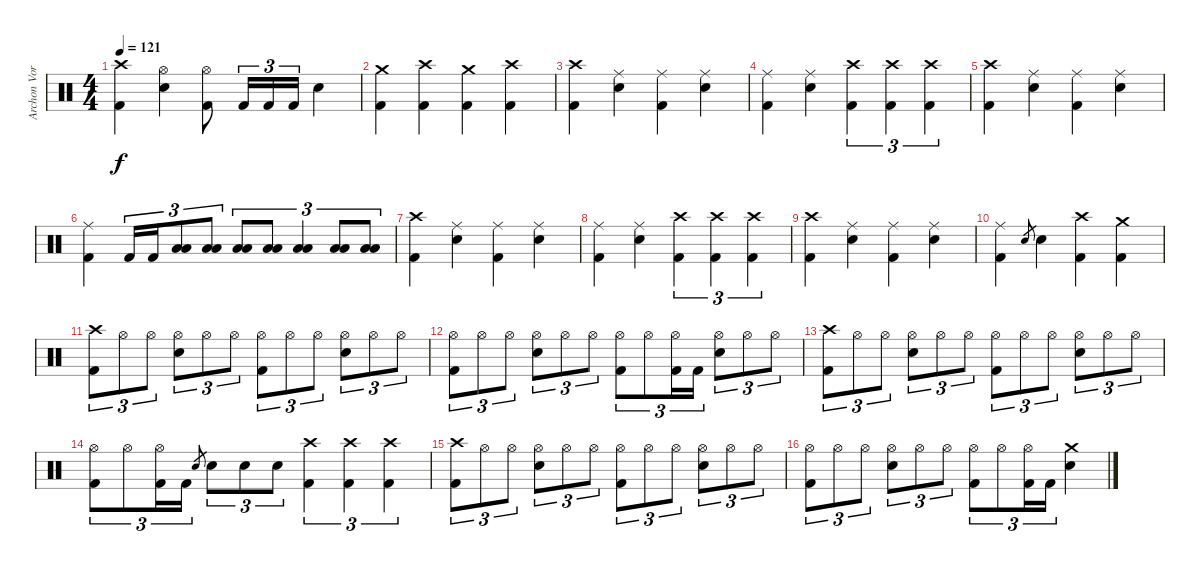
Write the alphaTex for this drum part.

\track ("Archon Vorskaath" "Archon Vor") {instrument percussion}
\staff {score}
\articulation defaults
\ts (4 4)
\tempo 121
\clef neutral
\ks c
("Crash high (hit)" "Kick (hit) 2").4{dy f} ("Hi-Hat (open)" "Electric Snare (hit)").4 ("Hi-Hat (open)" "Kick (hit) 2").8 "Kick (hit) 2".16{tu (3 2)} "Kick (hit) 2".16{tu (3 2)} "Kick (hit) 2".16{tu (3 2)} "Electric Snare (hit)".4 |
("Crash medium (hit)" "Kick (hit) 2").4 ("Crash high (hit)" "Kick (hit) 2").4 ("Crash medium (hit)" "Kick (hit) 2").4 ("Crash high (hit)" "Kick (hit) 2").4 |
("Crash high (hit)" "Kick (hit) 2").4 ("Ride (middle)" "Electric Snare (hit)").4 ("Ride (middle)" "Kick (hit) 2").4 ("Ride (middle)" "Electric Snare (hit)").4 |
("Ride (middle)" "Kick (hit) 2").4 ("Ride (middle)" "Electric Snare (hit)").4 ("Crash high (hit)" "Kick (hit) 2").4{tu (3 2)} ("Crash high (hit)" "Kick (hit) 2").4{tu (3 2)} ("Crash high (hit)" "Kick (hit) 2").4{tu (3 2)} |
("Crash high (hit)" "Kick (hit) 2").4 ("Ride (middle)" "Electric Snare (hit)").4 ("Ride (middle)" "Kick (hit) 2").4 ("Ride (middle)" "Electric Snare (hit)").4 |
("Ride (middle)" "Kick (hit) 2").4 "Kick (hit) 2".16{tu (3 2)} "Kick (hit) 2".16{tu (3 2)} ("Low Tom (hit)" "Low Floor Tom (hit)").8{tu (3 2)} ("Low Tom (hit)" "Low Floor Tom (hit)").8{tu (3 2)} ("Low Tom (hit)" "Low Floor Tom (hit)").8{tu (3 2)} ("Low Tom (hit)" "Low Floor Tom (hit)").8{tu (3 2)} ("Low Tom (hit)" "Low Floor Tom (hit)").4{tu (3 2)} ("Low Tom (hit)" "Low Floor Tom (hit)").8{tu (3 2)} ("Low Tom (hit)" "Low Floor Tom (hit)").8{tu (3 2)} |
("Crash high (hit)" "Kick (hit) 2").4 ("Ride (middle)" "Electric Snare (hit)").4 ("Ride (middle)" "Kick (hit) 2").4 ("Ride (middle)" "Electric Snare (hit)").4 |
("Ride (middle)" "Kick (hit) 2").4 ("Ride (middle)" "Electric Snare (hit)").4 ("Crash high (hit)" "Kick (hit) 2").4{tu (3 2)} ("Crash high (hit)" "Kick (hit) 2").4{tu (3 2)} ("Crash high (hit)" "Kick (hit) 2").4{tu (3 2)} |
("Crash high (hit)" "Kick (hit) 2").4 ("Ride (middle)" "Electric Snare (hit)").4 ("Ride (middle)" "Kick (hit) 2").4 ("Ride (middle)" "Electric Snare (hit)").4 |
("Ride (middle)" "Kick (hit) 2").4 "Electric Snare (hit)".8{gr} "Electric Snare (hit)".4 ("Crash high (hit)" "Kick (hit) 2").4 ("Crash medium (hit)" "Kick (hit) 2").4 |
("Crash high (hit)" "Kick (hit) 2").8{tu (3 2)} "Hi-Hat (open)".8{tu (3 2)} "Hi-Hat (open)".8{tu (3 2)} ("Hi-Hat (open)" "Electric Snare (hit)").8{tu (3 2)} "Hi-Hat (open)".8{tu (3 2)} "Hi-Hat (open)".8{tu (3 2)} ("Hi-Hat (open)" "Kick (hit) 2").8{tu (3 2)} "Hi-Hat (open)".8{tu (3 2)} "Hi-Hat (open)".8{tu (3 2)} ("Hi-Hat (open)" "Electric Snare (hit)").8{tu (3 2)} "Hi-Hat (open)".8{tu (3 2)} "Hi-Hat (open)".8{tu (3 2)} |
("Hi-Hat (open)" "Kick (hit) 2").8{tu (3 2)} "Hi-Hat (open)".8{tu (3 2)} "Hi-Hat (open)".8{tu (3 2)} ("Hi-Hat (open)" "Electric Snare (hit)").8{tu (3 2)} "Hi-Hat (open)".8{tu (3 2)} "Hi-Hat (open)".8{tu (3 2)} ("Hi-Hat (open)" "Kick (hit) 2").8{tu (3 2)} "Hi-Hat (open)".8{tu (3 2)} ("Hi-Hat (open)" "Kick (hit) 2").16{tu (3 2)} "Kick (hit) 2".16{tu (3 2)} ("Hi-Hat (open)" "Electric Snare (hit)").8{tu (3 2)} "Hi-Hat (open)".8{tu (3 2)} "Hi-Hat (open)".8{tu (3 2)} |
("Crash high (hit)" "Kick (hit) 2").8{tu (3 2)} "Hi-Hat (open)".8{tu (3 2)} "Hi-Hat (open)".8{tu (3 2)} ("Hi-Hat (open)" "Electric Snare (hit)").8{tu (3 2)} "Hi-Hat (open)".8{tu (3 2)} "Hi-Hat (open)".8{tu (3 2)} ("Hi-Hat (open)" "Kick (hit) 2").8{tu (3 2)} "Hi-Hat (open)".8{tu (3 2)} "Hi-Hat (open)".8{tu (3 2)} ("Hi-Hat (open)" "Electric Snare (hit)").8{tu (3 2)} "Hi-Hat (open)".8{tu (3 2)} "Hi-Hat (open)".8{tu (3 2)} |
("Hi-Hat (open)" "Kick (hit) 2").8{tu (3 2)} "Hi-Hat (open)".8{tu (3 2)} ("Hi-Hat (open)" "Kick (hit) 2").16{tu (3 2)} "Kick (hit) 2".16{tu (3 2)} "Electric Snare (hit)".8{gr} "Electric Snare (hit)".8{tu (3 2)} "Electric Snare (hit)".8{tu (3 2)} "Electric Snare (hit)".8{tu (3 2)} ("Crash high (hit)" "Kick (hit) 2").4{tu (3 2)} ("Crash high (hit)" "Kick (hit) 2").4{tu (3 2)} ("Crash high (hit)" "Kick (hit) 2").4{tu (3 2)} |
("Crash high (hit)" "Kick (hit) 2").8{tu (3 2)} "Hi-Hat (open)".8{tu (3 2)} "Hi-Hat (open)".8{tu (3 2)} ("Hi-Hat (open)" "Electric Snare (hit)").8{tu (3 2)} "Hi-Hat (open)".8{tu (3 2)} "Hi-Hat (open)".8{tu (3 2)} ("Hi-Hat (open)" "Kick (hit) 2").8{tu (3 2)} "Hi-Hat (open)".8{tu (3 2)} "Hi-Hat (open)".8{tu (3 2)} ("Hi-Hat (open)" "Electric Snare (hit)").8{tu (3 2)} "Hi-Hat (open)".8{tu (3 2)} "Hi-Hat (open)".8{tu (3 2)} |
("Hi-Hat (open)" "Kick (hit) 2").8{tu (3 2)} "Hi-Hat (open)".8{tu (3 2)} "Hi-Hat (open)".8{tu (3 2)} ("Hi-Hat (open)" "Electric Snare (hit)").8{tu (3 2)} "Hi-Hat (open)".8{tu (3 2)} "Hi-Hat (open)".8{tu (3 2)} ("Hi-Hat (open)" "Kick (hit) 2").8{tu (3 2)} "Hi-Hat (open)".8{tu (3 2)} ("Hi-Hat (open)" "Kick (hit) 2").16{tu (3 2)} "Kick (hit) 2".16{tu (3 2)} ("Crash medium (hit)" "Electric Snare (hit)").4
